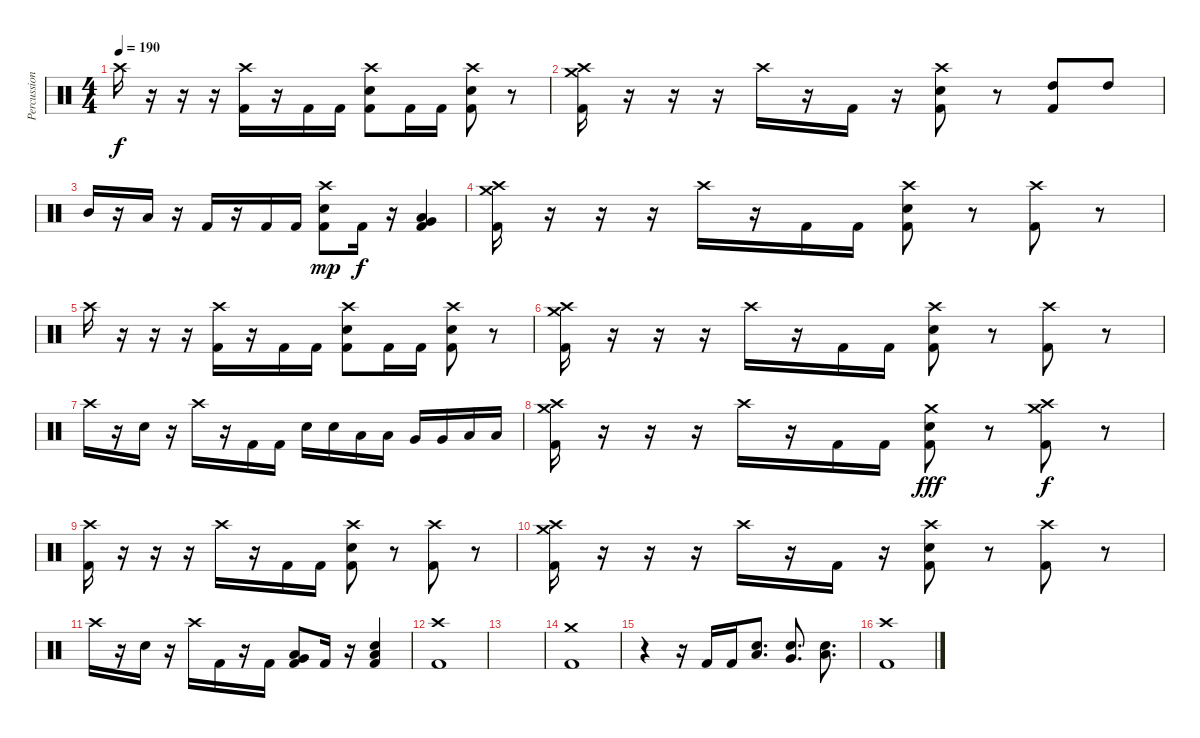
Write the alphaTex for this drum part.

\track ("Percussion" "Percussion") {instrument percussion}
\staff {score}
\articulation defaults
\ts (4 4)
\tempo 190
\clef neutral
\ks c "Crash high (hit)".16{dy f}
r.16 r.16 r.16 ("Crash high (hit)" "Kick (hit) 2").16 r.16 "Kick (hit) 2".16 "Kick (hit) 2".16 ("Crash high (hit)" "Electric Snare (hit)" "Kick (hit) 2").8 "Kick (hit) 2".16 "Kick (hit) 2".16 ("Crash high (hit)" "Electric Snare (hit)" "Kick (hit) 2").8 r.8 |
("Crash medium (hit)" "Crash high (hit)" "Kick (hit) 2").16 r.16 r.16 r.16 "Crash high (hit)".16 r.16 "Kick (hit) 2".16 r.16 ("Crash high (hit)" "Electric Snare (hit)" "Kick (hit) 2").8 r.8 ("High Tom (hit)" "Kick (hit) 2").8 "High Tom (hit)".8 |
"Mid Tom (hit)".16 r.16 "Low Tom (hit)".16 r.16 "Kick (hit) 2".16 r.16 "Kick (hit) 2".16 "Kick (hit) 2".16 ("Crash high (hit)" "Electric Snare (hit)" "Kick (hit) 2").8{dy mp} "Kick (hit) 2".16{dy f} r.16 ("Low Floor Tom (hit)" "Very Low Tom (hit)" "Kick (hit) 2").4 |
("Crash medium (hit)" "Crash high (hit)" "Kick (hit) 2").16 r.16 r.16 r.16 "Crash high (hit)".16 r.16 "Kick (hit) 2".16 "Kick (hit) 2".16 ("Crash high (hit)" "Electric Snare (hit)" "Kick (hit) 2").8 r.8 ("Crash high (hit)" "Kick (hit) 2").8 r.8 |
"Crash high (hit)".16 r.16 r.16 r.16 ("Crash high (hit)" "Kick (hit) 2").16 r.16 "Kick (hit) 2".16 "Kick (hit) 2".16 ("Crash high (hit)" "Electric Snare (hit)" "Kick (hit) 2").8 "Kick (hit) 2".16 "Kick (hit) 2".16 ("Crash high (hit)" "Electric Snare (hit)" "Kick (hit) 2").8 r.8 |
("Crash medium (hit)" "Crash high (hit)" "Kick (hit) 2").16 r.16 r.16 r.16 "Crash high (hit)".16 r.16 "Kick (hit) 2".16 "Kick (hit) 2".16 ("Crash high (hit)" "Electric Snare (hit)" "Kick (hit) 2").8 r.8 ("Crash high (hit)" "Kick (hit) 2").8 r.8 |
"Crash high (hit)".16 r.16 "Electric Snare (hit)".16 r.16 "Crash high (hit)".16 r.16 "Kick (hit) 2".16 "Kick (hit) 2".16 "Electric Snare (hit)".16 "Electric Snare (hit)".16 "Low Tom (hit)".16 "Low Tom (hit)".16 "Very Low Tom (hit)".16 "Very Low Tom (hit)".16 "Low Floor Tom (hit)".16 "Low Floor Tom (hit)".16 |
("Crash medium (hit)" "Crash high (hit)" "Kick (hit) 2").16 r.16 r.16 r.16 "Crash high (hit)".16 r.16 "Kick (hit) 2".16 "Kick (hit) 2".16 ("Crash medium (hit)" "Electric Snare (hit)" "Kick (hit) 2").8{dy fff} r.8 ("Crash medium (hit)" "Crash high (hit)" "Kick (hit) 2").8{dy f} r.8 |
("Crash high (hit)" "Kick (hit) 2").16 r.16 r.16 r.16 "Crash high (hit)".16 r.16 "Kick (hit) 2".16 "Kick (hit) 2".16 ("Crash high (hit)" "Electric Snare (hit)" "Kick (hit) 2").8 r.8 ("Crash high (hit)" "Kick (hit) 2").8 r.8 |
("Crash medium (hit)" "Crash high (hit)" "Kick (hit) 2").16 r.16 r.16 r.16 "Crash high (hit)".16 r.16 "Kick (hit) 2".16 r.16 ("Crash high (hit)" "Electric Snare (hit)" "Kick (hit) 2").8 r.8 ("Crash high (hit)" "Kick (hit) 2").8 r.8 |
"Crash high (hit)".16 r.16 "Electric Snare (hit)".16 r.16 "Crash high (hit)".16 "Kick (hit) 2".16 r.16 "Kick (hit) 2".16 ("Low Floor Tom (hit)" "Very Low Tom (hit)" "Kick (hit) 2").8 "Kick (hit) 2".16 r.16 ("Electric Snare (hit)" "Low Floor Tom (hit)" "Kick (hit) 2").4 |
("Crash high (hit)" "Kick (hit) 2").1 |
|
("Crash medium (hit)" "Kick (hit) 2").1 |
r.4 r.16 "Kick (hit) 2".16 "Kick (hit) 2".16 ("Low Tom (hit)" "Electric Snare (hit)").8{d} ("Very Low Tom (hit)" "Electric Snare (hit)").8{d} ("Low Floor Tom (hit)" "Electric Snare (hit)").8{d} |
("Crash high (hit)" "Kick (hit) 2").1
